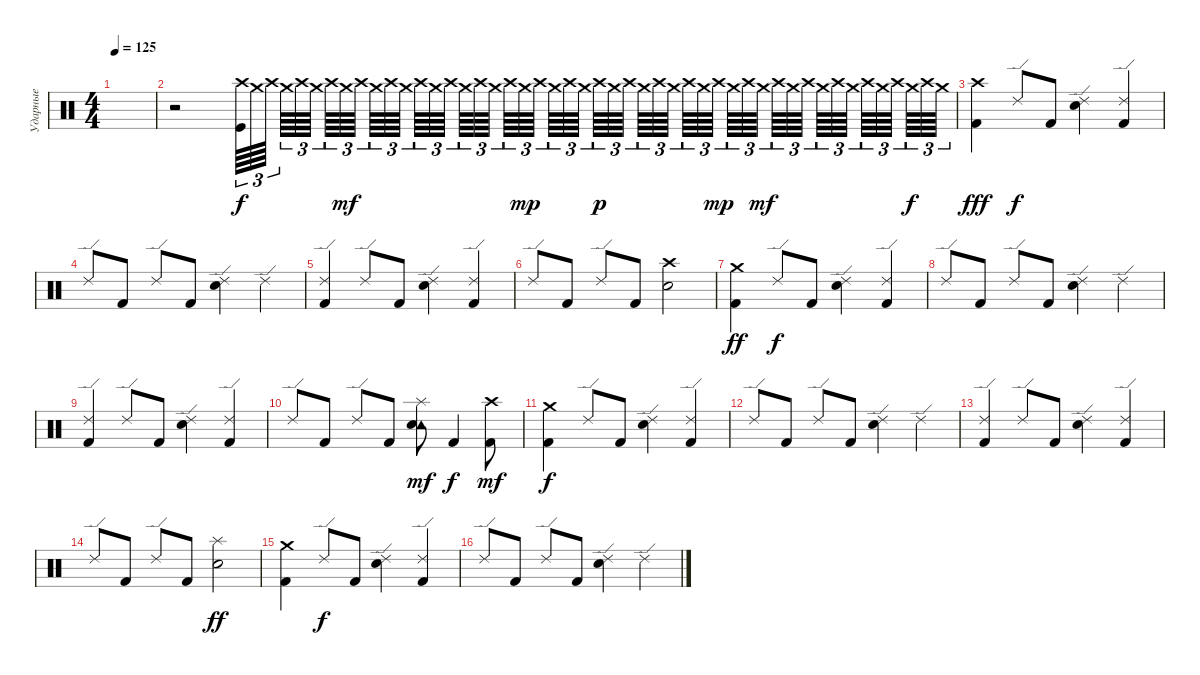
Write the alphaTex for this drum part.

\track ("Ударные" "Ударные") {instrument percussion}
\staff {score}
\articulation defaults
\ts (4 4)
\tempo 125
\clef neutral
\ks c
|
r.2 ("Crash high (hit)" "Kick (hit)").64{tu (3 2)} "Crash medium (hit)".64{tu (3 2)} "Crash high (hit)".64{tu (3 2)} "Crash medium (hit)".64{tu (3 2)} "Crash high (hit)".64{tu (3 2)} "Crash medium (hit)".64{tu (3 2)} "Crash high (hit)".64{tu (3 2)} "Crash medium (hit)".64{tu (3 2) dy mf} "Crash high (hit)".64{tu (3 2)} "Crash medium (hit)".64{tu (3 2)} "Crash high (hit)".64{tu (3 2)} "Crash medium (hit)".64{tu (3 2)} "Crash high (hit)".64{tu (3 2)} "Crash medium (hit)".64{tu (3 2)} "Crash high (hit)".64{tu (3 2)} "Crash medium (hit)".64{tu (3 2)} "Crash high (hit)".64{tu (3 2)} "Crash medium (hit)".64{tu (3 2)} "Crash high (hit)".64{tu (3 2)} "Crash medium (hit)".64{tu (3 2) dy mp} "Crash high (hit)".64{tu (3 2)} "Crash medium (hit)".64{tu (3 2)} "Crash high (hit)".64{tu (3 2)} "Crash medium (hit)".64{tu (3 2)} "Crash high (hit)".64{tu (3 2) dy p} "Crash medium (hit)".64{tu (3 2)} "Crash high (hit)".64{tu (3 2)} "Crash medium (hit)".64{tu (3 2)} "Crash high (hit)".64{tu (3 2)} "Crash medium (hit)".64{tu (3 2)} "Crash high (hit)".64{tu (3 2)} "Crash medium (hit)".64{tu (3 2)} "Crash high (hit)".64{tu (3 2) dy mp} "Crash medium (hit)".64{tu (3 2)} "Crash high (hit)".64{tu (3 2)} "Crash medium (hit)".64{tu (3 2) dy mf} "Crash high (hit)".64{tu (3 2)} "Crash medium (hit)".64{tu (3 2)} "Crash high (hit)".64{tu (3 2)} "Crash medium (hit)".64{tu (3 2)} "Crash high (hit)".64{tu (3 2)} "Crash medium (hit)".64{tu (3 2)} "Crash high (hit)".64{tu (3 2)} "Crash medium (hit)".64{tu (3 2)} "Crash high (hit)".64{tu (3 2)} "Crash medium (hit)".64{tu (3 2) dy f} "Crash high (hit)".64{tu (3 2)} "Crash medium (hit)".64{tu (3 2)} |
("Crash high (hit)" "Kick (hit) 2").4{dy fff} "Ride (edge) 2".8{dy f} "Kick (hit) 2".8 ("Ride (edge) 2" "Electric Snare (hit)").4 ("Ride (edge) 2" "Kick (hit) 2").4 |
"Ride (edge) 2".8 "Kick (hit) 2".8 "Ride (edge) 2".8 "Kick (hit) 2".8 ("Ride (edge) 2" "Electric Snare (hit)").4 "Ride (edge) 2".4 |
("Ride (edge) 2" "Kick (hit) 2").4 "Ride (edge) 2".8 "Kick (hit) 2".8 ("Ride (edge) 2" "Electric Snare (hit)").4 ("Ride (edge) 2" "Kick (hit) 2").4 |
"Ride (edge) 2".8 "Kick (hit) 2".8 "Ride (edge) 2".8 "Kick (hit) 2".8 ("Crash high (hit)" "Electric Snare (hit)").2 |
("Crash medium (hit)" "Kick (hit) 2").4{dy ff} "Ride (edge) 2".8{dy f} "Kick (hit) 2".8 ("Ride (edge) 2" "Electric Snare (hit)").4 ("Ride (edge) 2" "Kick (hit) 2").4 |
"Ride (edge) 2".8 "Kick (hit) 2".8 "Ride (edge) 2".8 "Kick (hit) 2".8 ("Ride (edge) 2" "Electric Snare (hit)").4 "Ride (edge) 2".4 |
("Ride (edge) 2" "Kick (hit) 2").4 "Ride (edge) 2".8 "Kick (hit) 2".8 ("Ride (edge) 2" "Electric Snare (hit)").4 ("Ride (edge) 2" "Kick (hit) 2").4 |
"Ride (edge) 2".8 "Kick (hit) 2".8 "Ride (edge) 2".8 "Kick (hit) 2".8 ("Tambourine (hit)" "Electric Snare (hit)" "Splash (hit)").8{dy mf} "Kick (hit) 2".4{dy f} ("Crash high (hit)" "Kick (hit) 2").8{dy mf} |
("Crash medium (hit)" "Kick (hit) 2").4{dy f} "Ride (edge) 2".8 "Kick (hit) 2".8 ("Ride (edge) 2" "Electric Snare (hit)").4 ("Ride (edge) 2" "Kick (hit) 2").4 |
"Ride (edge) 2".8 "Kick (hit) 2".8 "Ride (edge) 2".8 "Kick (hit) 2".8 ("Ride (edge) 2" "Electric Snare (hit)").4 "Ride (edge) 2".4 |
("Ride (edge) 2" "Kick (hit) 2").4 "Ride (edge) 2".8 "Kick (hit) 2".8 ("Ride (edge) 2" "Electric Snare (hit)").4 ("Ride (edge) 2" "Kick (hit) 2").4 |
"Ride (edge) 2".8 "Kick (hit) 2".8 "Ride (edge) 2".8 "Kick (hit) 2".8 ("Splash (hit)" "Electric Snare (hit)").2{dy ff} |
("Crash medium (hit)" "Kick (hit) 2").4 "Ride (edge) 2".8{dy f} "Kick (hit) 2".8 ("Ride (edge) 2" "Electric Snare (hit)").4 ("Ride (edge) 2" "Kick (hit) 2").4 |
"Ride (edge) 2".8 "Kick (hit) 2".8 "Ride (edge) 2".8 "Kick (hit) 2".8 ("Ride (edge) 2" "Electric Snare (hit)").4 "Ride (edge) 2".4
